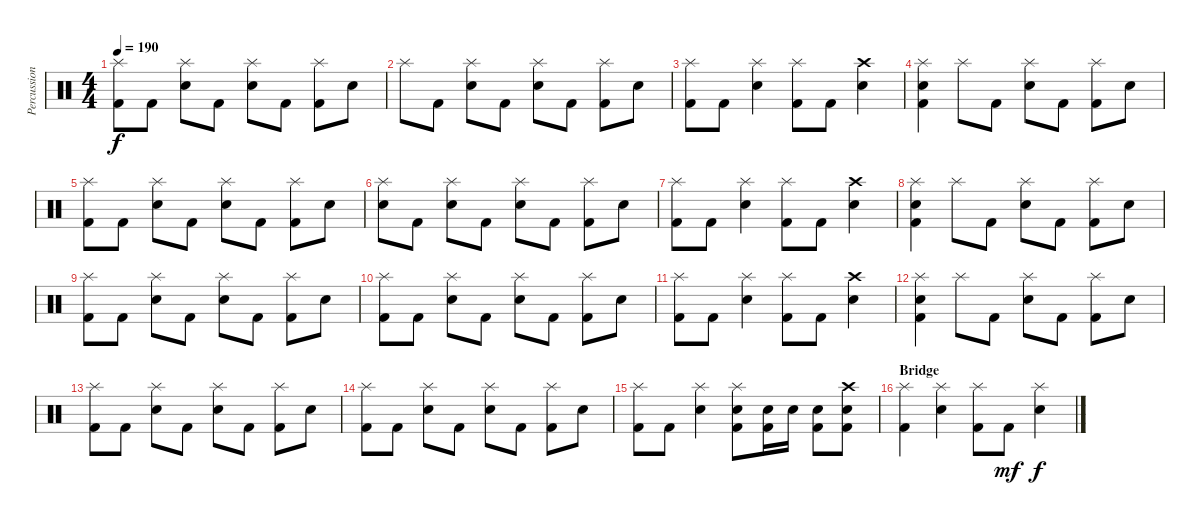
\track ("Percussion" "Percussion") {instrument percussion}
\staff {score}
\articulation defaults
\ts (4 4)
\tempo 190
\clef neutral
\ks c
("Splash (hit)" "Kick (hit) 2").8{dy f} "Kick (hit) 2".8 ("Splash (hit)" "Electric Snare (hit)").8 "Kick (hit) 2".8 ("Splash (hit)" "Electric Snare (hit)").8 "Kick (hit) 2".8 ("Splash (hit)" "Kick (hit) 2").8 "Electric Snare (hit)".8 |
"Splash (hit)".8 "Kick (hit) 2".8 ("Splash (hit)" "Electric Snare (hit)").8 "Kick (hit) 2".8 ("Splash (hit)" "Electric Snare (hit)").8 "Kick (hit) 2".8 ("Splash (hit)" "Kick (hit) 2").8 "Electric Snare (hit)".8 |
("Splash (hit)" "Kick (hit) 2").8 "Kick (hit) 2".8 ("Splash (hit)" "Electric Snare (hit)").4 ("Splash (hit)" "Kick (hit) 2").8 "Kick (hit) 2".8 ("Crash high (hit)" "Electric Snare (hit)").4 |
("Splash (hit)" "Electric Snare (hit)" "Kick (hit) 2").4 "Splash (hit)".8 "Kick (hit) 2".8 ("Splash (hit)" "Electric Snare (hit)").8 "Kick (hit) 2".8 ("Splash (hit)" "Kick (hit) 2").8 "Electric Snare (hit)".8 |
("Splash (hit)" "Kick (hit) 2").8 "Kick (hit) 2".8 ("Splash (hit)" "Electric Snare (hit)").8 "Kick (hit) 2".8 ("Splash (hit)" "Electric Snare (hit)").8 "Kick (hit) 2".8 ("Splash (hit)" "Kick (hit) 2").8 "Electric Snare (hit)".8 |
("Splash (hit)" "Electric Snare (hit)").8 "Kick (hit) 2".8 ("Splash (hit)" "Electric Snare (hit)").8 "Kick (hit) 2".8 ("Splash (hit)" "Electric Snare (hit)").8 "Kick (hit) 2".8 ("Splash (hit)" "Kick (hit) 2").8 "Electric Snare (hit)".8 |
("Splash (hit)" "Kick (hit) 2").8 "Kick (hit) 2".8 ("Splash (hit)" "Electric Snare (hit)").4 ("Splash (hit)" "Kick (hit) 2").8 "Kick (hit) 2".8 ("Crash high (hit)" "Electric Snare (hit)").4 |
("Splash (hit)" "Electric Snare (hit)" "Kick (hit) 2").4 "Splash (hit)".8 "Kick (hit) 2".8 ("Splash (hit)" "Electric Snare (hit)").8 "Kick (hit) 2".8 ("Splash (hit)" "Kick (hit) 2").8 "Electric Snare (hit)".8 |
("Splash (hit)" "Kick (hit) 2").8 "Kick (hit) 2".8 ("Splash (hit)" "Electric Snare (hit)").8 "Kick (hit) 2".8 ("Splash (hit)" "Electric Snare (hit)").8 "Kick (hit) 2".8 ("Splash (hit)" "Kick (hit) 2").8 "Electric Snare (hit)".8 |
("Splash (hit)" "Kick (hit) 2").8 "Kick (hit) 2".8 ("Splash (hit)" "Electric Snare (hit)").8 "Kick (hit) 2".8 ("Splash (hit)" "Electric Snare (hit)").8 "Kick (hit) 2".8 ("Splash (hit)" "Kick (hit) 2").8 "Electric Snare (hit)".8 |
("Splash (hit)" "Kick (hit) 2").8 "Kick (hit) 2".8 ("Splash (hit)" "Electric Snare (hit)").4 ("Splash (hit)" "Kick (hit) 2").8 "Kick (hit) 2".8 ("Crash high (hit)" "Electric Snare (hit)").4 |
("Splash (hit)" "Electric Snare (hit)" "Kick (hit) 2").4 "Splash (hit)".8 "Kick (hit) 2".8 ("Splash (hit)" "Electric Snare (hit)").8 "Kick (hit) 2".8 ("Splash (hit)" "Kick (hit) 2").8 "Electric Snare (hit)".8 |
("Splash (hit)" "Kick (hit) 2").8 "Kick (hit) 2".8 ("Splash (hit)" "Electric Snare (hit)").8 "Kick (hit) 2".8 ("Splash (hit)" "Electric Snare (hit)").8 "Kick (hit) 2".8 ("Splash (hit)" "Kick (hit) 2").8 "Electric Snare (hit)".8 |
("Splash (hit)" "Kick (hit) 2").8 "Kick (hit) 2".8 ("Splash (hit)" "Electric Snare (hit)").8 "Kick (hit) 2".8 ("Splash (hit)" "Electric Snare (hit)").8 "Kick (hit) 2".8 ("Splash (hit)" "Kick (hit) 2").8 "Electric Snare (hit)".8 |
("Splash (hit)" "Kick (hit) 2").8 "Kick (hit) 2".8 ("Splash (hit)" "Electric Snare (hit)").4 ("Splash (hit)" "Electric Snare (hit)" "Kick (hit) 2").8 ("Electric Snare (hit)" "Kick (hit) 2").16 "Electric Snare (hit)".16 ("Electric Snare (hit)" "Kick (hit) 2").8 ("Crash high (hit)" "Electric Snare (hit)" "Kick (hit) 2").8 |
\section ("" "Bridge")
("Splash (hit)" "Kick (hit) 2").4 ("Splash (hit)" "Electric Snare (hit)").4 ("Splash (hit)" "Kick (hit) 2").8 "Kick (hit) 2".8{dy mf} ("Splash (hit)" "Electric Snare (hit)").4{dy f}
